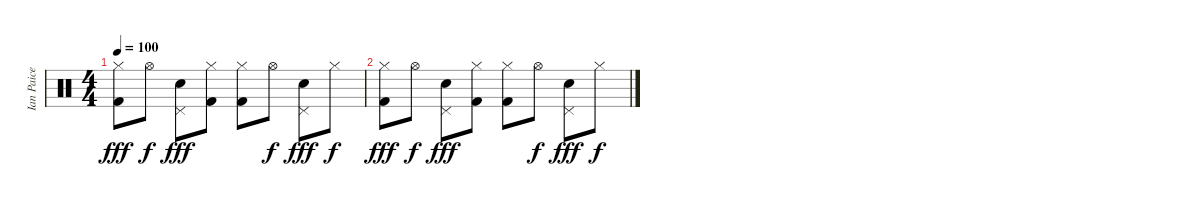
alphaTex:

\track ("Ian Paice" "Ian Paice") {instrument percussion}
\staff {score}
\articulation defaults
\ts (4 4)
\tempo 100
\clef neutral
\ks c
("Hi-Hat (closed)" "Kick (hit) 2").8{dy fff} "Hi-Hat (open)".8{dy f} ("Pedal Hi-Hat (hit)" "Snare (hit) 2").8{dy fff} ("Hi-Hat (closed)" "Kick (hit) 2").8 ("Hi-Hat (closed)" "Kick (hit) 2").8 "Hi-Hat (open)".8{dy f} ("Pedal Hi-Hat (hit)" "Snare (hit) 2").8{dy fff} "Hi-Hat (closed)".8{dy f} |
("Hi-Hat (closed)" "Kick (hit) 2").8{dy fff} "Hi-Hat (open)".8{dy f} ("Pedal Hi-Hat (hit)" "Snare (hit) 2").8{dy fff} ("Hi-Hat (closed)" "Kick (hit) 2").8 ("Hi-Hat (closed)" "Kick (hit) 2").8 "Hi-Hat (open)".8{dy f} ("Pedal Hi-Hat (hit)" "Snare (hit) 2").8{dy fff} "Hi-Hat (closed)".8{dy f}
